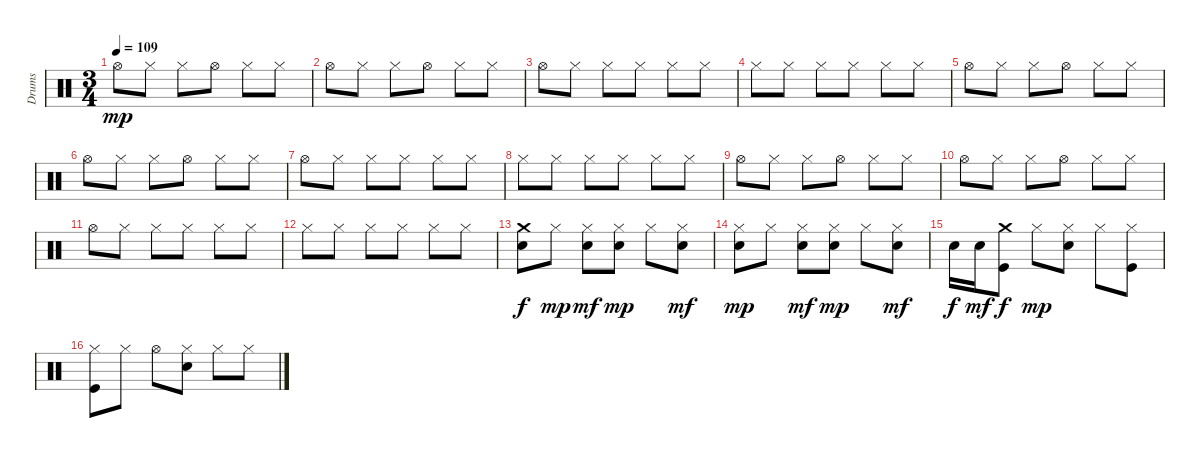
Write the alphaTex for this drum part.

\track ("Drums" "Drums") {instrument percussion}
\staff {score}
\articulation defaults
\ts (3 4)
\tempo 109
\clef neutral
\ks c "Hi-Hat (open)".8{dy mp} "Hi-Hat (closed)".8 "Hi-Hat (closed)".8 "Hi-Hat (open)".8 "Hi-Hat (closed)".8 "Hi-Hat (closed)".8
|
"Hi-Hat (open)".8 "Hi-Hat (closed)".8 "Hi-Hat (closed)".8 "Hi-Hat (open)".8 "Hi-Hat (closed)".8 "Hi-Hat (closed)".8 |
"Hi-Hat (open)".8 "Hi-Hat (closed)".8 "Hi-Hat (closed)".8 "Hi-Hat (closed)".8 "Hi-Hat (closed)".8 "Hi-Hat (closed)".8 |
"Hi-Hat (closed)".8 "Hi-Hat (closed)".8 "Hi-Hat (closed)".8 "Hi-Hat (closed)".8 "Hi-Hat (closed)".8 "Hi-Hat (closed)".8 |
"Hi-Hat (open)".8 "Hi-Hat (closed)".8 "Hi-Hat (closed)".8 "Hi-Hat (open)".8 "Hi-Hat (closed)".8 "Hi-Hat (closed)".8 |
"Hi-Hat (open)".8 "Hi-Hat (closed)".8 "Hi-Hat (closed)".8 "Hi-Hat (open)".8 "Hi-Hat (closed)".8 "Hi-Hat (closed)".8 |
"Hi-Hat (open)".8 "Hi-Hat (closed)".8 "Hi-Hat (closed)".8 "Hi-Hat (closed)".8 "Hi-Hat (closed)".8 "Hi-Hat (closed)".8 |
"Hi-Hat (closed)".8 "Hi-Hat (closed)".8 "Hi-Hat (closed)".8 "Hi-Hat (closed)".8 "Hi-Hat (closed)".8 "Hi-Hat (closed)".8 |
"Hi-Hat (open)".8 "Hi-Hat (closed)".8 "Hi-Hat (closed)".8 "Hi-Hat (open)".8 "Hi-Hat (closed)".8 "Hi-Hat (closed)".8 |
"Hi-Hat (open)".8 "Hi-Hat (closed)".8 "Hi-Hat (closed)".8 "Hi-Hat (open)".8 "Hi-Hat (closed)".8 "Hi-Hat (closed)".8 |
"Hi-Hat (open)".8 "Hi-Hat (closed)".8 "Hi-Hat (closed)".8 "Hi-Hat (closed)".8 "Hi-Hat (closed)".8 "Hi-Hat (closed)".8 |
"Hi-Hat (closed)".8 "Hi-Hat (closed)".8 "Hi-Hat (closed)".8 "Hi-Hat (closed)".8 "Hi-Hat (closed)".8 "Hi-Hat (closed)".8 |
("Crash medium (hit)" "Electric Snare (hit)").8{dy f} "Hi-Hat (closed)".8{dy mp} ("Hi-Hat (closed)" "Electric Snare (hit)").8{dy mf} ("Hi-Hat (closed)" "Electric Snare (hit)").8{dy mp} "Hi-Hat (closed)".8 ("Hi-Hat (closed)" "Electric Snare (hit)").8{dy mf} |
("Hi-Hat (closed)" "Electric Snare (hit)").8{dy mp} "Hi-Hat (closed)".8 ("Hi-Hat (closed)" "Electric Snare (hit)").8{dy mf} ("Hi-Hat (closed)" "Electric Snare (hit)").8{dy mp} "Hi-Hat (closed)".8 ("Hi-Hat (closed)" "Electric Snare (hit)").8{dy mf} |
"Electric Snare (hit)".16{dy f} "Electric Snare (hit)".16{dy mf} ("Crash medium (hit)" "Kick (hit)").8{dy f} "Hi-Hat (closed)".8{dy mp} ("Hi-Hat (closed)" "Electric Snare (hit)").8 "Hi-Hat (closed)".8 ("Hi-Hat (closed)" "Kick (hit)").8 |
("Hi-Hat (closed)" "Kick (hit)").8 "Hi-Hat (closed)".8 "Hi-Hat (open)".8 ("Hi-Hat (closed)" "Electric Snare (hit)").8 "Hi-Hat (closed)".8 "Hi-Hat (closed)".8
